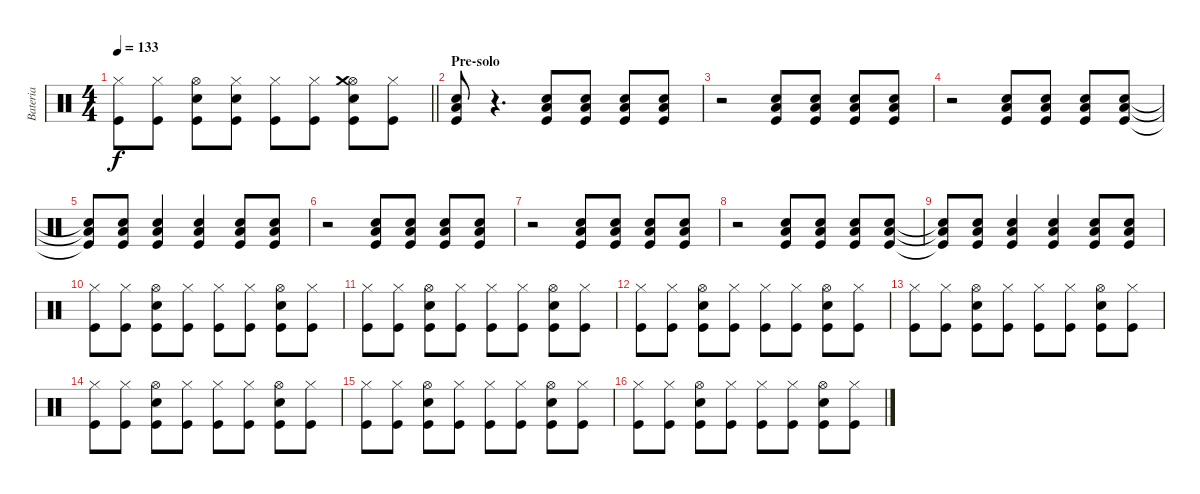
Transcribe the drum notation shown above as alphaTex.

\track ("Bateria" "Bateria") {instrument percussion}
\staff
\articulation defaults
\ts (4 4)
\tempo 133
\clef neutral
\barLineRight lightlight
\ks c
("Hi-Hat (closed)" "Kick (hit)").8{dy f} ("Hi-Hat (closed)" "Kick (hit)").8 ("Hi-Hat (open)" "Kick (hit)" "Snare (hit) 2").8 ("Hi-Hat (closed)" "Kick (hit)" "Snare (hit) 2").8 ("Hi-Hat (closed)" "Kick (hit)").8 ("Hi-Hat (closed)" "Kick (hit)").8 ("Hi-Hat (open)" "Kick (hit)" "Snare (hit) 2" "Crash medium (hit)").8 ("Hi-Hat (closed)" "Kick (hit)").8 |
\section ("" "Pre-solo")
("Snare (hit) 2" "Low Floor Tom (hit)" "Kick (hit)").8 r.4{d} ("Snare (hit) 2" "Low Floor Tom (hit)" "Kick (hit)").8 ("Snare (hit) 2" "Low Floor Tom (hit)" "Kick (hit)").8 ("Snare (hit) 2" "Low Floor Tom (hit)" "Kick (hit)").8 ("Snare (hit) 2" "Low Floor Tom (hit)" "Kick (hit)").8 |
r.2 ("Snare (hit) 2" "Low Floor Tom (hit)" "Kick (hit)").8 ("Snare (hit) 2" "Low Floor Tom (hit)" "Kick (hit)").8 ("Snare (hit) 2" "Low Floor Tom (hit)" "Kick (hit)").8 ("Snare (hit) 2" "Low Floor Tom (hit)" "Kick (hit)").8 |
r.2 ("Snare (hit) 2" "Low Floor Tom (hit)" "Kick (hit)").8 ("Snare (hit) 2" "Low Floor Tom (hit)" "Kick (hit)").8 ("Snare (hit) 2" "Low Floor Tom (hit)" "Kick (hit)").8 ("Snare (hit) 2" "Low Floor Tom (hit)" "Kick (hit)").8 |
("Snare (hit) 2"{t} "Low Floor Tom (hit)"{t} "Kick (hit)"{t}).8 ("Snare (hit) 2" "Low Floor Tom (hit)" "Kick (hit)").8 ("Snare (hit) 2" "Low Floor Tom (hit)" "Kick (hit)").4 ("Snare (hit) 2" "Low Floor Tom (hit)" "Kick (hit)").4 ("Snare (hit) 2" "Low Floor Tom (hit)" "Kick (hit)").8 ("Snare (hit) 2" "Low Floor Tom (hit)" "Kick (hit)").8 |
r.2 ("Snare (hit) 2" "Low Floor Tom (hit)" "Kick (hit)").8 ("Snare (hit) 2" "Low Floor Tom (hit)" "Kick (hit)").8 ("Snare (hit) 2" "Low Floor Tom (hit)" "Kick (hit)").8 ("Snare (hit) 2" "Low Floor Tom (hit)" "Kick (hit)").8 |
r.2 ("Snare (hit) 2" "Low Floor Tom (hit)" "Kick (hit)").8 ("Snare (hit) 2" "Low Floor Tom (hit)" "Kick (hit)").8 ("Snare (hit) 2" "Low Floor Tom (hit)" "Kick (hit)").8 ("Snare (hit) 2" "Low Floor Tom (hit)" "Kick (hit)").8 |
r.2 ("Snare (hit) 2" "Low Floor Tom (hit)" "Kick (hit)").8 ("Snare (hit) 2" "Low Floor Tom (hit)" "Kick (hit)").8 ("Snare (hit) 2" "Low Floor Tom (hit)" "Kick (hit)").8 ("Snare (hit) 2" "Low Floor Tom (hit)" "Kick (hit)").8 |
("Snare (hit) 2"{t} "Low Floor Tom (hit)"{t} "Kick (hit)"{t}).8 ("Snare (hit) 2" "Low Floor Tom (hit)" "Kick (hit)").8 ("Snare (hit) 2" "Low Floor Tom (hit)" "Kick (hit)").4 ("Snare (hit) 2" "Low Floor Tom (hit)" "Kick (hit)").4 ("Snare (hit) 2" "Low Floor Tom (hit)" "Kick (hit)").8 ("Snare (hit) 2" "Low Floor Tom (hit)" "Kick (hit)").8 |
("Hi-Hat (closed)" "Kick (hit)").8 ("Hi-Hat (closed)" "Kick (hit)").8 ("Hi-Hat (open)" "Kick (hit)" "Snare (hit) 2").8 ("Hi-Hat (closed)" "Kick (hit)").8 ("Hi-Hat (closed)" "Kick (hit)").8 ("Hi-Hat (closed)" "Kick (hit)").8 ("Hi-Hat (open)" "Kick (hit)" "Snare (hit) 2").8 ("Hi-Hat (closed)" "Kick (hit)").8 |
("Hi-Hat (closed)" "Kick (hit)").8 ("Hi-Hat (closed)" "Kick (hit)").8 ("Hi-Hat (open)" "Kick (hit)" "Snare (hit) 2").8 ("Hi-Hat (closed)" "Kick (hit)").8 ("Hi-Hat (closed)" "Kick (hit)").8 ("Hi-Hat (closed)" "Kick (hit)").8 ("Hi-Hat (open)" "Kick (hit)" "Snare (hit) 2").8 ("Hi-Hat (closed)" "Kick (hit)").8 |
("Hi-Hat (closed)" "Kick (hit)").8 ("Hi-Hat (closed)" "Kick (hit)").8 ("Hi-Hat (open)" "Kick (hit)" "Snare (hit) 2").8 ("Hi-Hat (closed)" "Kick (hit)").8 ("Hi-Hat (closed)" "Kick (hit)").8 ("Hi-Hat (closed)" "Kick (hit)").8 ("Hi-Hat (open)" "Kick (hit)" "Snare (hit) 2").8 ("Hi-Hat (closed)" "Kick (hit)").8 |
("Hi-Hat (closed)" "Kick (hit)").8 ("Hi-Hat (closed)" "Kick (hit)").8 ("Hi-Hat (open)" "Kick (hit)" "Snare (hit) 2").8 ("Hi-Hat (closed)" "Kick (hit)").8 ("Hi-Hat (closed)" "Kick (hit)").8 ("Hi-Hat (closed)" "Kick (hit)").8 ("Hi-Hat (open)" "Kick (hit)" "Snare (hit) 2").8 ("Hi-Hat (closed)" "Kick (hit)").8 |
("Hi-Hat (closed)" "Kick (hit)").8 ("Hi-Hat (closed)" "Kick (hit)").8 ("Hi-Hat (open)" "Kick (hit)" "Snare (hit) 2").8 ("Hi-Hat (closed)" "Kick (hit)").8 ("Hi-Hat (closed)" "Kick (hit)").8 ("Hi-Hat (closed)" "Kick (hit)").8 ("Hi-Hat (open)" "Kick (hit)" "Snare (hit) 2").8 ("Hi-Hat (closed)" "Kick (hit)").8 |
("Hi-Hat (closed)" "Kick (hit)").8 ("Hi-Hat (closed)" "Kick (hit)").8 ("Hi-Hat (open)" "Kick (hit)" "Snare (hit) 2").8 ("Hi-Hat (closed)" "Kick (hit)").8 ("Hi-Hat (closed)" "Kick (hit)").8 ("Hi-Hat (closed)" "Kick (hit)").8 ("Hi-Hat (open)" "Kick (hit)" "Snare (hit) 2").8 ("Hi-Hat (closed)" "Kick (hit)").8 |
("Hi-Hat (closed)" "Kick (hit)").8 ("Hi-Hat (closed)" "Kick (hit)").8 ("Hi-Hat (open)" "Kick (hit)" "Snare (hit) 2").8 ("Hi-Hat (closed)" "Kick (hit)").8 ("Hi-Hat (closed)" "Kick (hit)").8 ("Hi-Hat (closed)" "Kick (hit)").8 ("Hi-Hat (open)" "Kick (hit)" "Snare (hit) 2").8 ("Hi-Hat (closed)" "Kick (hit)").8
